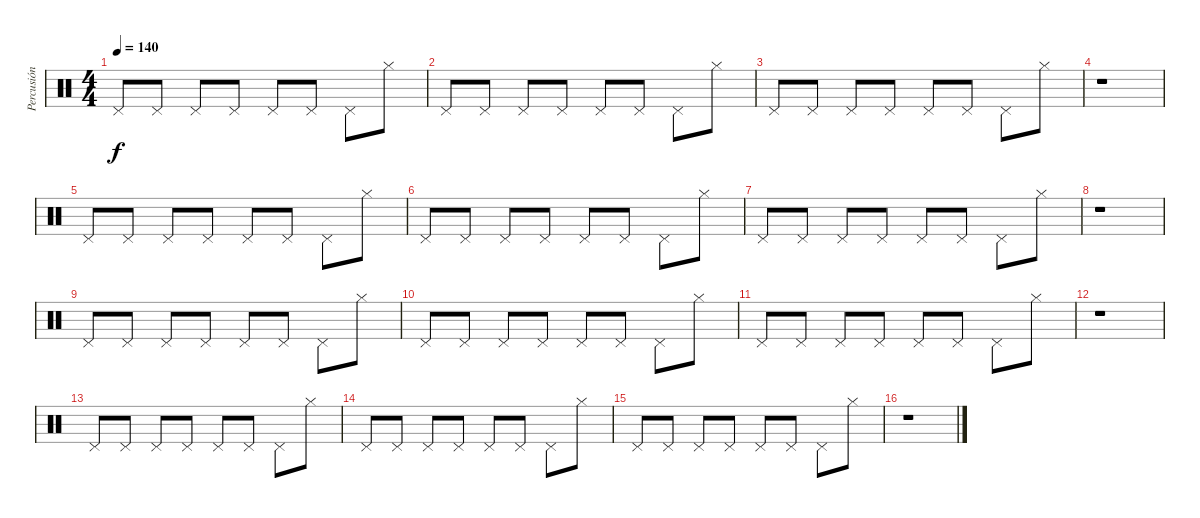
\track ("Percusión" "Percusión") {instrument percussion}
\staff {score}
\articulation defaults
\ts (4 4)
\tempo 140
\clef neutral
\ks c "Pedal Hi-Hat (hit)".8{dy f} "Pedal Hi-Hat (hit)".8 "Pedal Hi-Hat (hit)".8 "Pedal Hi-Hat (hit)".8 "Pedal Hi-Hat (hit)".8 "Pedal Hi-Hat (hit)".8 "Pedal Hi-Hat (hit)".8 "Hi-Hat (closed)".8
|
"Pedal Hi-Hat (hit)".8 "Pedal Hi-Hat (hit)".8 "Pedal Hi-Hat (hit)".8 "Pedal Hi-Hat (hit)".8 "Pedal Hi-Hat (hit)".8 "Pedal Hi-Hat (hit)".8 "Pedal Hi-Hat (hit)".8 "Hi-Hat (closed)".8 |
"Pedal Hi-Hat (hit)".8 "Pedal Hi-Hat (hit)".8 "Pedal Hi-Hat (hit)".8 "Pedal Hi-Hat (hit)".8 "Pedal Hi-Hat (hit)".8 "Pedal Hi-Hat (hit)".8 "Pedal Hi-Hat (hit)".8 "Hi-Hat (closed)".8 |
r.1 |
"Pedal Hi-Hat (hit)".8 "Pedal Hi-Hat (hit)".8 "Pedal Hi-Hat (hit)".8 "Pedal Hi-Hat (hit)".8 "Pedal Hi-Hat (hit)".8 "Pedal Hi-Hat (hit)".8 "Pedal Hi-Hat (hit)".8 "Hi-Hat (closed)".8 |
"Pedal Hi-Hat (hit)".8 "Pedal Hi-Hat (hit)".8 "Pedal Hi-Hat (hit)".8 "Pedal Hi-Hat (hit)".8 "Pedal Hi-Hat (hit)".8 "Pedal Hi-Hat (hit)".8 "Pedal Hi-Hat (hit)".8 "Hi-Hat (closed)".8 |
"Pedal Hi-Hat (hit)".8 "Pedal Hi-Hat (hit)".8 "Pedal Hi-Hat (hit)".8 "Pedal Hi-Hat (hit)".8 "Pedal Hi-Hat (hit)".8 "Pedal Hi-Hat (hit)".8 "Pedal Hi-Hat (hit)".8 "Hi-Hat (closed)".8 |
r.1 |
"Pedal Hi-Hat (hit)".8 "Pedal Hi-Hat (hit)".8 "Pedal Hi-Hat (hit)".8 "Pedal Hi-Hat (hit)".8 "Pedal Hi-Hat (hit)".8 "Pedal Hi-Hat (hit)".8 "Pedal Hi-Hat (hit)".8 "Hi-Hat (closed)".8 |
"Pedal Hi-Hat (hit)".8 "Pedal Hi-Hat (hit)".8 "Pedal Hi-Hat (hit)".8 "Pedal Hi-Hat (hit)".8 "Pedal Hi-Hat (hit)".8 "Pedal Hi-Hat (hit)".8 "Pedal Hi-Hat (hit)".8 "Hi-Hat (closed)".8 |
"Pedal Hi-Hat (hit)".8 "Pedal Hi-Hat (hit)".8 "Pedal Hi-Hat (hit)".8 "Pedal Hi-Hat (hit)".8 "Pedal Hi-Hat (hit)".8 "Pedal Hi-Hat (hit)".8 "Pedal Hi-Hat (hit)".8 "Hi-Hat (closed)".8 |
r.1 |
"Pedal Hi-Hat (hit)".8 "Pedal Hi-Hat (hit)".8 "Pedal Hi-Hat (hit)".8 "Pedal Hi-Hat (hit)".8 "Pedal Hi-Hat (hit)".8 "Pedal Hi-Hat (hit)".8 "Pedal Hi-Hat (hit)".8 "Hi-Hat (closed)".8 |
"Pedal Hi-Hat (hit)".8 "Pedal Hi-Hat (hit)".8 "Pedal Hi-Hat (hit)".8 "Pedal Hi-Hat (hit)".8 "Pedal Hi-Hat (hit)".8 "Pedal Hi-Hat (hit)".8 "Pedal Hi-Hat (hit)".8 "Hi-Hat (closed)".8 |
"Pedal Hi-Hat (hit)".8 "Pedal Hi-Hat (hit)".8 "Pedal Hi-Hat (hit)".8 "Pedal Hi-Hat (hit)".8 "Pedal Hi-Hat (hit)".8 "Pedal Hi-Hat (hit)".8 "Pedal Hi-Hat (hit)".8 "Hi-Hat (closed)".8 |
r.1
